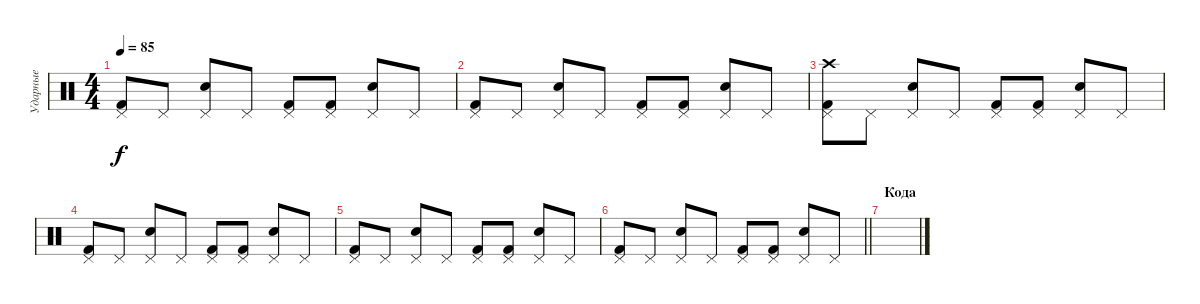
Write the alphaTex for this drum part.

\track ("Ударные" "Ударные") {instrument percussion}
\staff {score}
\articulation defaults
\ts (4 4)
\tempo 85
\clef neutral
\ks c
("Pedal Hi-Hat (hit)" "Kick (hit) 2").8{dy f} "Pedal Hi-Hat (hit)".8 ("Pedal Hi-Hat (hit)" "Electric Snare (hit)").8 "Pedal Hi-Hat (hit)".8 ("Pedal Hi-Hat (hit)" "Kick (hit) 2").8 ("Pedal Hi-Hat (hit)" "Kick (hit) 2").8 ("Pedal Hi-Hat (hit)" "Electric Snare (hit)").8 "Pedal Hi-Hat (hit)".8 |
("Pedal Hi-Hat (hit)" "Kick (hit) 2").8 "Pedal Hi-Hat (hit)".8 ("Pedal Hi-Hat (hit)" "Electric Snare (hit)").8 "Pedal Hi-Hat (hit)".8 ("Pedal Hi-Hat (hit)" "Kick (hit) 2").8 ("Pedal Hi-Hat (hit)" "Kick (hit) 2").8 ("Pedal Hi-Hat (hit)" "Electric Snare (hit)").8 "Pedal Hi-Hat (hit)".8 |
("Pedal Hi-Hat (hit)" "Crash high (hit)" "Kick (hit) 2").8 "Pedal Hi-Hat (hit)".8 ("Pedal Hi-Hat (hit)" "Electric Snare (hit)").8 "Pedal Hi-Hat (hit)".8 ("Pedal Hi-Hat (hit)" "Kick (hit) 2").8 ("Pedal Hi-Hat (hit)" "Kick (hit) 2").8 ("Pedal Hi-Hat (hit)" "Electric Snare (hit)").8 "Pedal Hi-Hat (hit)".8 |
("Pedal Hi-Hat (hit)" "Kick (hit) 2").8 "Pedal Hi-Hat (hit)".8 ("Pedal Hi-Hat (hit)" "Electric Snare (hit)").8 "Pedal Hi-Hat (hit)".8 ("Pedal Hi-Hat (hit)" "Kick (hit) 2").8 ("Pedal Hi-Hat (hit)" "Kick (hit) 2").8 ("Pedal Hi-Hat (hit)" "Electric Snare (hit)").8 "Pedal Hi-Hat (hit)".8 |
("Pedal Hi-Hat (hit)" "Kick (hit) 2").8 "Pedal Hi-Hat (hit)".8 ("Pedal Hi-Hat (hit)" "Electric Snare (hit)").8 "Pedal Hi-Hat (hit)".8 ("Pedal Hi-Hat (hit)" "Kick (hit) 2").8 ("Pedal Hi-Hat (hit)" "Kick (hit) 2").8 ("Pedal Hi-Hat (hit)" "Electric Snare (hit)").8 "Pedal Hi-Hat (hit)".8 |
\barLineRight lightlight
("Pedal Hi-Hat (hit)" "Kick (hit) 2").8 "Pedal Hi-Hat (hit)".8 ("Pedal Hi-Hat (hit)" "Electric Snare (hit)").8 "Pedal Hi-Hat (hit)".8 ("Pedal Hi-Hat (hit)" "Kick (hit) 2").8 ("Pedal Hi-Hat (hit)" "Kick (hit) 2").8 ("Pedal Hi-Hat (hit)" "Electric Snare (hit)").8 "Pedal Hi-Hat (hit)".8 |
\section ("" "Кода")
